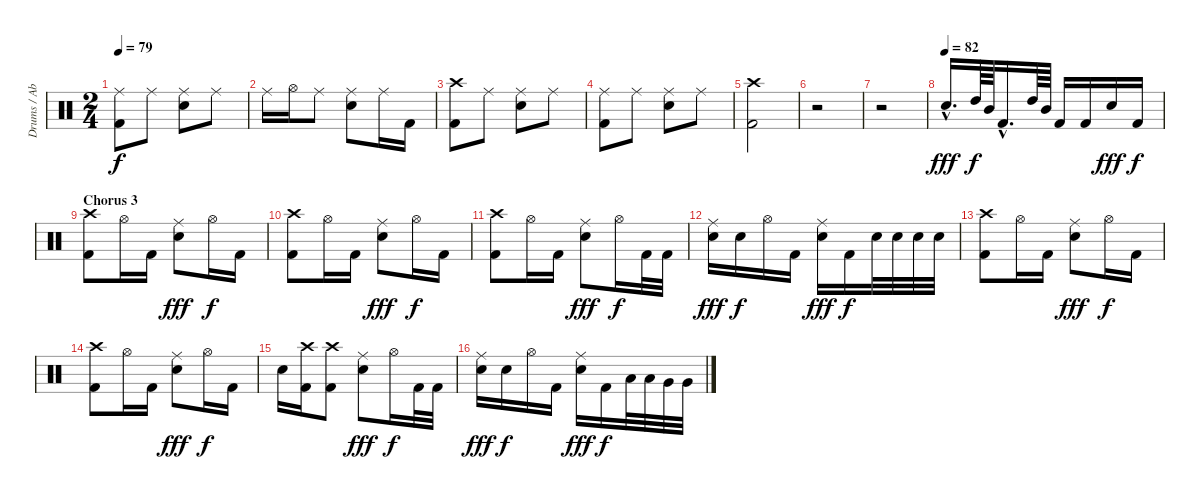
\track ("Drums / Abe Cunningham" "Drums / Ab") {instrument percussion}
\staff {score}
\articulation defaults
\ts (2 4)
\tempo 79
\clef neutral
\ks c
("Ride (middle)" "Kick (hit) 2").8{dy f} "Ride (middle)".8 ("Ride (middle)" "Electric Snare (hit)").8 "Ride (middle)".8 |
"Ride (middle)".16 "Hi-Hat (open)".16 "Ride (middle)".8 ("Ride (middle)" "Electric Snare (hit)").8 "Ride (middle)".16 "Kick (hit) 2".16 |
("Crash high (hit)" "Kick (hit) 2").8 "Ride (middle)".8 ("Ride (middle)" "Electric Snare (hit)").8 "Ride (middle)".8 |
("Ride (middle)" "Kick (hit) 2").8 "Ride (middle)".8 ("Ride (middle)" "Electric Snare (hit)").8 "Ride (middle)".8 |
("Crash high (hit)" "Kick (hit) 2").2 |
r.2 |
r.2 |
\tempo (82)
"Electric Snare (hit)"{hac}.16{d dy fff} "High Tom (hit)".64{dy f} "Mid Tom (hit)".64 "Kick (hit) 2"{hac}.16{d} "High Tom (hit)".64 "Mid Tom (hit)".64 "Kick (hit) 2".16 "Kick (hit) 2".16 "Electric Snare (hit)".16{dy fff} "Kick (hit) 2".16{dy f} |
\section ("" "Chorus 3")
("Crash high (hit)" "Kick (hit) 2").8 "Hi-Hat (open)".16 "Kick (hit) 2".16 ("Ride (middle)" "Electric Snare (hit)").8{dy fff} "Hi-Hat (open)".16{dy f} "Kick (hit) 2".16 |
("Crash high (hit)" "Kick (hit) 2").8 "Hi-Hat (open)".16 "Kick (hit) 2".16 ("Ride (middle)" "Electric Snare (hit)").8{dy fff} "Hi-Hat (open)".16{dy f} "Kick (hit) 2".16 |
("Crash high (hit)" "Kick (hit) 2").8 "Hi-Hat (open)".16 "Kick (hit) 2".16 ("Ride (middle)" "Electric Snare (hit)").8{dy fff} "Hi-Hat (open)".16{dy f} "Kick (hit) 2".32 "Kick (hit) 2".32 |
("Ride (middle)" "Electric Snare (hit)").16{dy fff} "Electric Snare (hit)".16{dy f} "Hi-Hat (open)".16 "Kick (hit) 2".16 ("Ride (middle)" "Electric Snare (hit)").16{dy fff} "Kick (hit) 2".16{dy f} "Electric Snare (hit)".32 "Electric Snare (hit)".32 "Electric Snare (hit)".32 "Electric Snare (hit)".32 |
("Crash high (hit)" "Kick (hit) 2").8 "Hi-Hat (open)".16 "Kick (hit) 2".16 ("Ride (middle)" "Electric Snare (hit)").8{dy fff} "Hi-Hat (open)".16{dy f} "Kick (hit) 2".16 |
("Crash high (hit)" "Kick (hit) 2").8 "Hi-Hat (open)".16 "Kick (hit) 2".16 ("Ride (middle)" "Electric Snare (hit)").8{dy fff} "Hi-Hat (open)".16{dy f} "Kick (hit) 2".16 |
"Electric Snare (hit)".16 ("Crash high (hit)" "Kick (hit) 2").16 ("Crash high (hit)" "Kick (hit) 2").8 ("Ride (middle)" "Electric Snare (hit)").8{dy fff} "Hi-Hat (open)".16{dy f} "Kick (hit) 2".32 "Kick (hit) 2".32 |
("Ride (middle)" "Electric Snare (hit)").16{dy fff} "Electric Snare (hit)".16{dy f} "Hi-Hat (open)".16 "Kick (hit) 2".16 ("Ride (middle)" "Electric Snare (hit)").16{dy fff} "Kick (hit) 2".16{dy f} "Low Tom (hit)".32 "Low Tom (hit)".32 "Very Low Tom (hit)".32 "Very Low Tom (hit)".32
